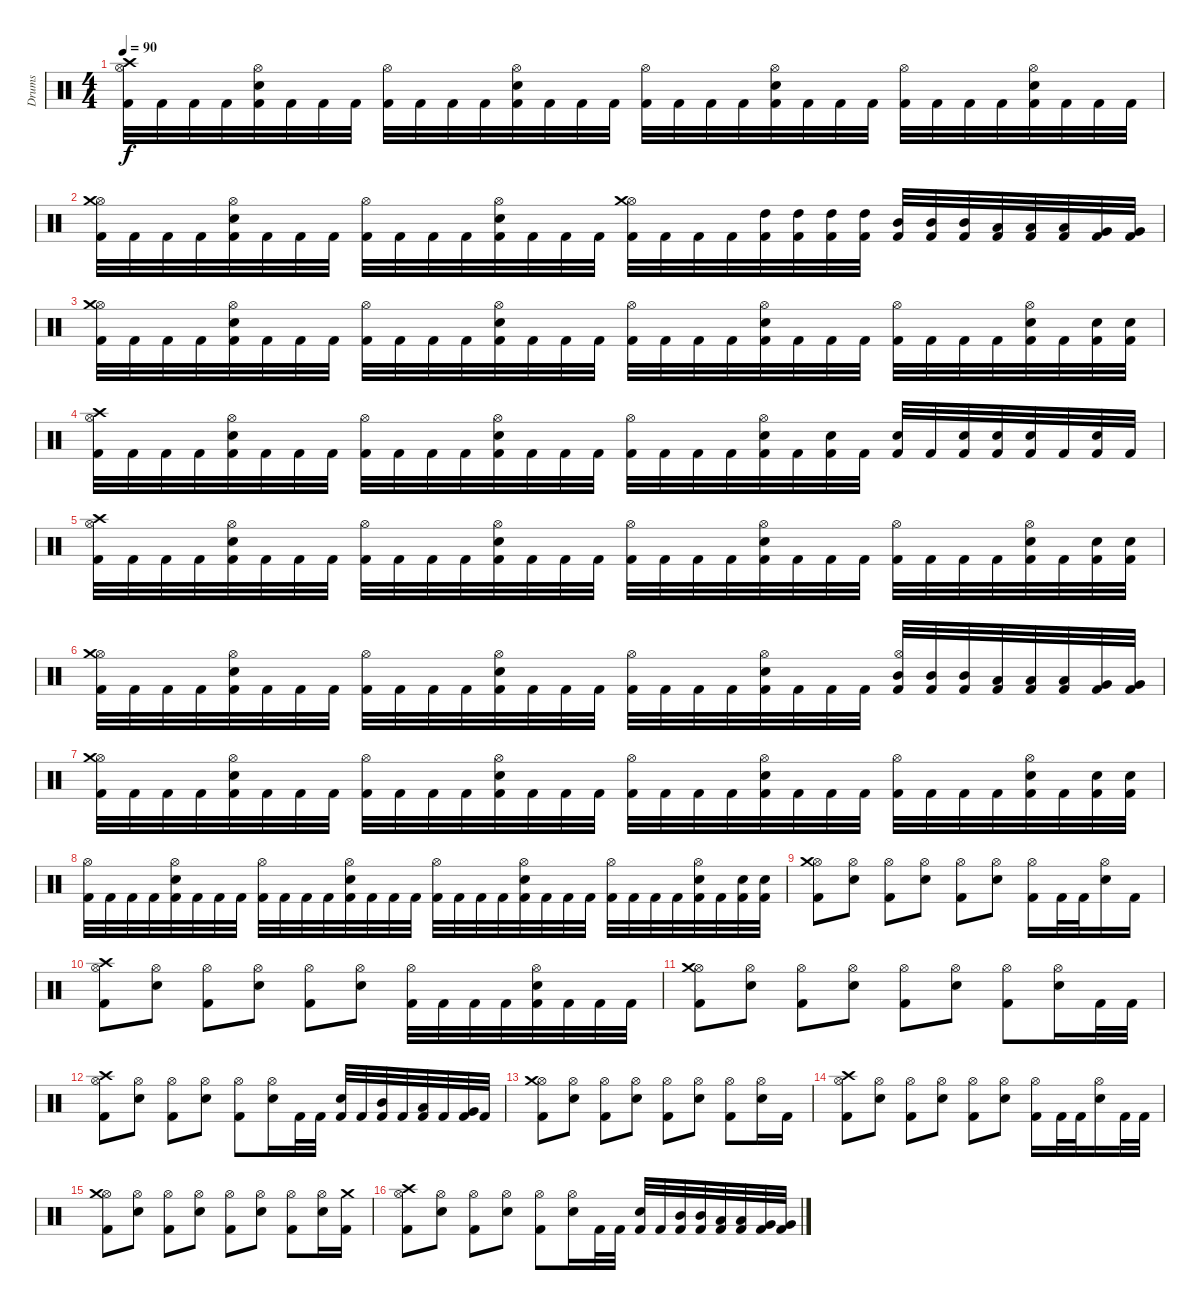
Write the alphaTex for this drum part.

\track ("Drums" "Drums") {instrument percussion}
\staff {score}
\articulation defaults
\ts (4 4)
\tempo 90
\clef neutral
\ks c
("Kick (hit) 2" "Hi-Hat (open)" "Crash high (hit)").32{dy f} "Kick (hit) 2".32 "Kick (hit) 2".32 "Kick (hit) 2".32 ("Kick (hit) 2" "Electric Snare (hit)" "Hi-Hat (open)").32 "Kick (hit) 2".32 "Kick (hit) 2".32 "Kick (hit) 2".32 ("Kick (hit) 2" "Hi-Hat (open)").32 "Kick (hit) 2".32 "Kick (hit) 2".32 "Kick (hit) 2".32 ("Kick (hit) 2" "Electric Snare (hit)" "Hi-Hat (open)").32 "Kick (hit) 2".32 "Kick (hit) 2".32 "Kick (hit) 2".32 ("Kick (hit) 2" "Hi-Hat (open)").32 "Kick (hit) 2".32 "Kick (hit) 2".32 "Kick (hit) 2".32 ("Kick (hit) 2" "Electric Snare (hit)" "Hi-Hat (open)").32 "Kick (hit) 2".32 "Kick (hit) 2".32 "Kick (hit) 2".32 ("Kick (hit) 2" "Hi-Hat (open)").32 "Kick (hit) 2".32 "Kick (hit) 2".32 "Kick (hit) 2".32 ("Kick (hit) 2" "Electric Snare (hit)" "Hi-Hat (open)").32 "Kick (hit) 2".32 "Kick (hit) 2".32 "Kick (hit) 2".32 |
("Kick (hit) 2" "Hi-Hat (open)" "Crash medium (hit)").32 "Kick (hit) 2".32 "Kick (hit) 2".32 "Kick (hit) 2".32 ("Kick (hit) 2" "Electric Snare (hit)" "Hi-Hat (open)").32 "Kick (hit) 2".32 "Kick (hit) 2".32 "Kick (hit) 2".32 ("Kick (hit) 2" "Hi-Hat (open)").32 "Kick (hit) 2".32 "Kick (hit) 2".32 "Kick (hit) 2".32 ("Kick (hit) 2" "Electric Snare (hit)" "Hi-Hat (open)").32 "Kick (hit) 2".32 "Kick (hit) 2".32 "Kick (hit) 2".32 ("Kick (hit) 2" "Hi-Hat (open)" "Crash medium (hit)").32 "Kick (hit) 2".32 "Kick (hit) 2".32 "Kick (hit) 2".32 ("Kick (hit) 2" "High Tom (hit)").32 ("Kick (hit) 2" "High Tom (hit)").32 ("Kick (hit) 2" "High Tom (hit)").32 ("Kick (hit) 2" "High Tom (hit)").32 ("Kick (hit) 2" "Mid Tom (hit)").32 ("Kick (hit) 2" "Mid Tom (hit)").32 ("Kick (hit) 2" "Mid Tom (hit)").32 ("Kick (hit) 2" "Low Tom (hit)").32 ("Kick (hit) 2" "Low Tom (hit)").32 ("Kick (hit) 2" "Low Tom (hit)").32 ("Kick (hit) 2" "Very Low Tom (hit)").32 ("Kick (hit) 2" "Very Low Tom (hit)").32 |
("Kick (hit) 2" "Hi-Hat (open)" "Crash medium (hit)").32 "Kick (hit) 2".32 "Kick (hit) 2".32 "Kick (hit) 2".32 ("Kick (hit) 2" "Electric Snare (hit)" "Hi-Hat (open)").32 "Kick (hit) 2".32 "Kick (hit) 2".32 "Kick (hit) 2".32 ("Kick (hit) 2" "Hi-Hat (open)").32 "Kick (hit) 2".32 "Kick (hit) 2".32 "Kick (hit) 2".32 ("Kick (hit) 2" "Electric Snare (hit)" "Hi-Hat (open)").32 "Kick (hit) 2".32 "Kick (hit) 2".32 "Kick (hit) 2".32 ("Kick (hit) 2" "Hi-Hat (open)").32 "Kick (hit) 2".32 "Kick (hit) 2".32 "Kick (hit) 2".32 ("Kick (hit) 2" "Electric Snare (hit)" "Hi-Hat (open)").32 "Kick (hit) 2".32 "Kick (hit) 2".32 "Kick (hit) 2".32 ("Kick (hit) 2" "Hi-Hat (open)").32 "Kick (hit) 2".32 "Kick (hit) 2".32 "Kick (hit) 2".32 ("Kick (hit) 2" "Electric Snare (hit)" "Hi-Hat (open)").32 "Kick (hit) 2".32 ("Kick (hit) 2" "Electric Snare (hit)").32 ("Kick (hit) 2" "Electric Snare (hit)").32 |
("Kick (hit) 2" "Hi-Hat (open)" "Crash high (hit)").32 "Kick (hit) 2".32 "Kick (hit) 2".32 "Kick (hit) 2".32 ("Kick (hit) 2" "Electric Snare (hit)" "Hi-Hat (open)").32 "Kick (hit) 2".32 "Kick (hit) 2".32 "Kick (hit) 2".32 ("Kick (hit) 2" "Hi-Hat (open)").32 "Kick (hit) 2".32 "Kick (hit) 2".32 "Kick (hit) 2".32 ("Kick (hit) 2" "Electric Snare (hit)" "Hi-Hat (open)").32 "Kick (hit) 2".32 "Kick (hit) 2".32 "Kick (hit) 2".32 ("Kick (hit) 2" "Hi-Hat (open)").32 "Kick (hit) 2".32 "Kick (hit) 2".32 "Kick (hit) 2".32 ("Kick (hit) 2" "Electric Snare (hit)" "Hi-Hat (open)").32 "Kick (hit) 2".32 ("Kick (hit) 2" "Electric Snare (hit)").32 "Kick (hit) 2".32 ("Kick (hit) 2" "Electric Snare (hit)").32 "Kick (hit) 2".32 ("Kick (hit) 2" "Electric Snare (hit)").32 ("Kick (hit) 2" "Electric Snare (hit)").32 ("Kick (hit) 2" "Electric Snare (hit)").32 "Kick (hit) 2".32 ("Kick (hit) 2" "Electric Snare (hit)").32 "Kick (hit) 2".32 |
("Kick (hit) 2" "Hi-Hat (open)" "Crash high (hit)").32 "Kick (hit) 2".32 "Kick (hit) 2".32 "Kick (hit) 2".32 ("Kick (hit) 2" "Electric Snare (hit)" "Hi-Hat (open)").32 "Kick (hit) 2".32 "Kick (hit) 2".32 "Kick (hit) 2".32 ("Kick (hit) 2" "Hi-Hat (open)").32 "Kick (hit) 2".32 "Kick (hit) 2".32 "Kick (hit) 2".32 ("Kick (hit) 2" "Electric Snare (hit)" "Hi-Hat (open)").32 "Kick (hit) 2".32 "Kick (hit) 2".32 "Kick (hit) 2".32 ("Kick (hit) 2" "Hi-Hat (open)").32 "Kick (hit) 2".32 "Kick (hit) 2".32 "Kick (hit) 2".32 ("Kick (hit) 2" "Electric Snare (hit)" "Hi-Hat (open)").32 "Kick (hit) 2".32 "Kick (hit) 2".32 "Kick (hit) 2".32 ("Kick (hit) 2" "Hi-Hat (open)").32 "Kick (hit) 2".32 "Kick (hit) 2".32 "Kick (hit) 2".32 ("Kick (hit) 2" "Electric Snare (hit)" "Hi-Hat (open)").32 "Kick (hit) 2".32 ("Kick (hit) 2" "Electric Snare (hit)").32 ("Kick (hit) 2" "Electric Snare (hit)").32 |
("Kick (hit) 2" "Hi-Hat (open)" "Crash medium (hit)").32 "Kick (hit) 2".32 "Kick (hit) 2".32 "Kick (hit) 2".32 ("Kick (hit) 2" "Electric Snare (hit)" "Hi-Hat (open)").32 "Kick (hit) 2".32 "Kick (hit) 2".32 "Kick (hit) 2".32 ("Kick (hit) 2" "Hi-Hat (open)").32 "Kick (hit) 2".32 "Kick (hit) 2".32 "Kick (hit) 2".32 ("Kick (hit) 2" "Electric Snare (hit)" "Hi-Hat (open)").32 "Kick (hit) 2".32 "Kick (hit) 2".32 "Kick (hit) 2".32 ("Kick (hit) 2" "Hi-Hat (open)").32 "Kick (hit) 2".32 "Kick (hit) 2".32 "Kick (hit) 2".32 ("Kick (hit) 2" "Electric Snare (hit)" "Hi-Hat (open)").32 "Kick (hit) 2".32 "Kick (hit) 2".32 "Kick (hit) 2".32 ("Kick (hit) 2" "Mid Tom (hit)" "Hi-Hat (open)").32 ("Kick (hit) 2" "Mid Tom (hit)").32 ("Kick (hit) 2" "Mid Tom (hit)").32 ("Kick (hit) 2" "Low Tom (hit)").32 ("Kick (hit) 2" "Low Tom (hit)").32 ("Kick (hit) 2" "Low Tom (hit)").32 ("Kick (hit) 2" "Very Low Tom (hit)").32 ("Kick (hit) 2" "Very Low Tom (hit)").32 |
("Kick (hit) 2" "Hi-Hat (open)" "Crash medium (hit)").32 "Kick (hit) 2".32 "Kick (hit) 2".32 "Kick (hit) 2".32 ("Kick (hit) 2" "Electric Snare (hit)" "Hi-Hat (open)").32 "Kick (hit) 2".32 "Kick (hit) 2".32 "Kick (hit) 2".32 ("Kick (hit) 2" "Hi-Hat (open)").32 "Kick (hit) 2".32 "Kick (hit) 2".32 "Kick (hit) 2".32 ("Kick (hit) 2" "Electric Snare (hit)" "Hi-Hat (open)").32 "Kick (hit) 2".32 "Kick (hit) 2".32 "Kick (hit) 2".32 ("Kick (hit) 2" "Hi-Hat (open)").32 "Kick (hit) 2".32 "Kick (hit) 2".32 "Kick (hit) 2".32 ("Kick (hit) 2" "Electric Snare (hit)" "Hi-Hat (open)").32 "Kick (hit) 2".32 "Kick (hit) 2".32 "Kick (hit) 2".32 ("Kick (hit) 2" "Hi-Hat (open)").32 "Kick (hit) 2".32 "Kick (hit) 2".32 "Kick (hit) 2".32 ("Kick (hit) 2" "Electric Snare (hit)" "Hi-Hat (open)").32 "Kick (hit) 2".32 ("Kick (hit) 2" "Electric Snare (hit)").32 ("Kick (hit) 2" "Electric Snare (hit)").32 |
("Kick (hit) 2" "Hi-Hat (open)").32 "Kick (hit) 2".32 "Kick (hit) 2".32 "Kick (hit) 2".32 ("Kick (hit) 2" "Electric Snare (hit)" "Hi-Hat (open)").32 "Kick (hit) 2".32 "Kick (hit) 2".32 "Kick (hit) 2".32 ("Kick (hit) 2" "Hi-Hat (open)").32 "Kick (hit) 2".32 "Kick (hit) 2".32 "Kick (hit) 2".32 ("Kick (hit) 2" "Electric Snare (hit)" "Hi-Hat (open)").32 "Kick (hit) 2".32 "Kick (hit) 2".32 "Kick (hit) 2".32 ("Kick (hit) 2" "Hi-Hat (open)").32 "Kick (hit) 2".32 "Kick (hit) 2".32 "Kick (hit) 2".32 ("Kick (hit) 2" "Electric Snare (hit)" "Hi-Hat (open)").32 "Kick (hit) 2".32 "Kick (hit) 2".32 "Kick (hit) 2".32 ("Kick (hit) 2" "Hi-Hat (open)").32 "Kick (hit) 2".32 "Kick (hit) 2".32 "Kick (hit) 2".32 ("Kick (hit) 2" "Electric Snare (hit)" "Hi-Hat (open)").32 "Kick (hit) 2".32 ("Kick (hit) 2" "Electric Snare (hit)").32 ("Kick (hit) 2" "Electric Snare (hit)").32 |
("Kick (hit) 2" "Hi-Hat (open)" "Crash medium (hit)").8 ("Electric Snare (hit)" "Hi-Hat (open)").8 ("Kick (hit) 2" "Hi-Hat (open)").8 ("Electric Snare (hit)" "Hi-Hat (open)").8 ("Kick (hit) 2" "Hi-Hat (open)").8 ("Electric Snare (hit)" "Hi-Hat (open)").8 ("Kick (hit) 2" "Hi-Hat (open)").16 "Kick (hit) 2".32 "Kick (hit) 2".32 ("Electric Snare (hit)" "Hi-Hat (open)").16 "Kick (hit) 2".16 |
("Kick (hit) 2" "Hi-Hat (open)" "Crash high (hit)").8 ("Electric Snare (hit)" "Hi-Hat (open)").8 ("Kick (hit) 2" "Hi-Hat (open)").8 ("Electric Snare (hit)" "Hi-Hat (open)").8 ("Kick (hit) 2" "Hi-Hat (open)").8 ("Electric Snare (hit)" "Hi-Hat (open)").8 ("Kick (hit) 2" "Hi-Hat (open)").32 "Kick (hit) 2".32 "Kick (hit) 2".32 "Kick (hit) 2".32 ("Kick (hit) 2" "Electric Snare (hit)" "Hi-Hat (open)").32 "Kick (hit) 2".32 "Kick (hit) 2".32 "Kick (hit) 2".32 |
("Kick (hit) 2" "Hi-Hat (open)" "Crash medium (hit)").8 ("Electric Snare (hit)" "Hi-Hat (open)").8 ("Kick (hit) 2" "Hi-Hat (open)").8 ("Electric Snare (hit)" "Hi-Hat (open)").8 ("Kick (hit) 2" "Hi-Hat (open)").8 ("Electric Snare (hit)" "Hi-Hat (open)").8 ("Kick (hit) 2" "Hi-Hat (open)").8 ("Electric Snare (hit)" "Hi-Hat (open)").16 "Kick (hit) 2".32 "Kick (hit) 2".32 |
("Kick (hit) 2" "Hi-Hat (open)" "Crash high (hit)").8 ("Electric Snare (hit)" "Hi-Hat (open)").8 ("Kick (hit) 2" "Hi-Hat (open)").8 ("Electric Snare (hit)" "Hi-Hat (open)").8 ("Kick (hit) 2" "Hi-Hat (open)").8 ("Electric Snare (hit)" "Hi-Hat (open)").16 "Kick (hit) 2".32 "Kick (hit) 2".32 ("Kick (hit) 2" "Electric Snare (hit)").32 "Kick (hit) 2".32 ("Kick (hit) 2" "Mid Tom (hit)").32 "Kick (hit) 2".32 ("Kick (hit) 2" "Low Tom (hit)").32 "Kick (hit) 2".32 ("Kick (hit) 2" "Very Low Tom (hit)").32 "Kick (hit) 2".32 |
("Kick (hit) 2" "Hi-Hat (open)" "Crash medium (hit)").8 ("Electric Snare (hit)" "Hi-Hat (open)").8 ("Kick (hit) 2" "Hi-Hat (open)").8 ("Electric Snare (hit)" "Hi-Hat (open)").8 ("Kick (hit) 2" "Hi-Hat (open)").8 ("Electric Snare (hit)" "Hi-Hat (open)").8 ("Kick (hit) 2" "Hi-Hat (open)").8 ("Electric Snare (hit)" "Hi-Hat (open)").16 "Kick (hit) 2".16 |
("Kick (hit) 2" "Hi-Hat (open)" "Crash high (hit)").8 ("Electric Snare (hit)" "Hi-Hat (open)").8 ("Kick (hit) 2" "Hi-Hat (open)").8 ("Electric Snare (hit)" "Hi-Hat (open)").8 ("Kick (hit) 2" "Hi-Hat (open)").8 ("Electric Snare (hit)" "Hi-Hat (open)").8 ("Kick (hit) 2" "Hi-Hat (open)").16 "Kick (hit) 2".32 "Kick (hit) 2".32 ("Electric Snare (hit)" "Hi-Hat (open)").16 "Kick (hit) 2".32 "Kick (hit) 2".32 |
("Kick (hit) 2" "Hi-Hat (open)" "Crash medium (hit)").8 ("Electric Snare (hit)" "Hi-Hat (open)").8 ("Kick (hit) 2" "Hi-Hat (open)").8 ("Electric Snare (hit)" "Hi-Hat (open)").8 ("Kick (hit) 2" "Hi-Hat (open)").8 ("Electric Snare (hit)" "Hi-Hat (open)").8 ("Kick (hit) 2" "Hi-Hat (open)").8 ("Electric Snare (hit)" "Hi-Hat (open)").16 ("Kick (hit) 2" "Crash medium (hit)").16 |
("Kick (hit) 2" "Hi-Hat (open)" "Crash high (hit)").8 ("Electric Snare (hit)" "Hi-Hat (open)").8 ("Kick (hit) 2" "Hi-Hat (open)").8 ("Electric Snare (hit)" "Hi-Hat (open)").8 ("Kick (hit) 2" "Hi-Hat (open)").8 ("Electric Snare (hit)" "Hi-Hat (open)").16 "Kick (hit) 2".32 "Kick (hit) 2".32 ("Kick (hit) 2" "Electric Snare (hit)").32 "Kick (hit) 2".32 ("Kick (hit) 2" "Mid Tom (hit)").32 ("Kick (hit) 2" "Mid Tom (hit)").32 ("Kick (hit) 2" "Low Tom (hit)").32 ("Kick (hit) 2" "Low Tom (hit)").32 ("Kick (hit) 2" "Very Low Tom (hit)").32 ("Kick (hit) 2" "Very Low Tom (hit)").32
